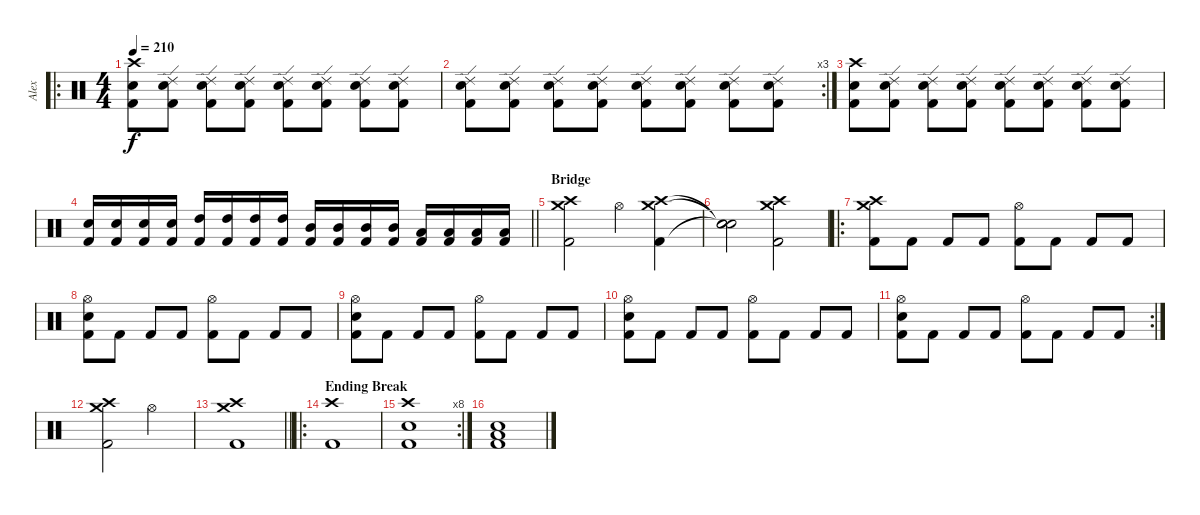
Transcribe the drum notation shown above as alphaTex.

\track ("Alex" "Alex") {instrument percussion}
\staff {score}
\articulation defaults
\ro
\ts (4 4)
\tempo 210
\clef neutral
\ks c
("Crash high (hit)" "Electric Snare (hit)" "Kick (hit) 2").8{dy f} ("Ride (edge) 2" "Electric Snare (hit)" "Kick (hit) 2").8 ("Ride (edge) 2" "Electric Snare (hit)" "Kick (hit) 2").8 ("Ride (edge) 2" "Electric Snare (hit)" "Kick (hit) 2").8 ("Ride (edge) 2" "Electric Snare (hit)" "Kick (hit) 2").8 ("Ride (edge) 2" "Electric Snare (hit)" "Kick (hit) 2").8 ("Ride (edge) 2" "Electric Snare (hit)" "Kick (hit) 2").8 ("Ride (edge) 2" "Electric Snare (hit)" "Kick (hit) 2").8 |
\rc 3
("Ride (edge) 2" "Electric Snare (hit)" "Kick (hit) 2").8 ("Ride (edge) 2" "Electric Snare (hit)" "Kick (hit) 2").8 ("Ride (edge) 2" "Electric Snare (hit)" "Kick (hit) 2").8 ("Ride (edge) 2" "Electric Snare (hit)" "Kick (hit) 2").8 ("Ride (edge) 2" "Electric Snare (hit)" "Kick (hit) 2").8 ("Ride (edge) 2" "Electric Snare (hit)" "Kick (hit) 2").8 ("Ride (edge) 2" "Electric Snare (hit)" "Kick (hit) 2").8 ("Ride (edge) 2" "Electric Snare (hit)" "Kick (hit) 2").8 |
("Crash high (hit)" "Electric Snare (hit)" "Kick (hit) 2").8 ("Ride (edge) 2" "Electric Snare (hit)" "Kick (hit) 2").8 ("Ride (edge) 2" "Electric Snare (hit)" "Kick (hit) 2").8 ("Ride (edge) 2" "Electric Snare (hit)" "Kick (hit) 2").8 ("Ride (edge) 2" "Electric Snare (hit)" "Kick (hit) 2").8 ("Ride (edge) 2" "Electric Snare (hit)" "Kick (hit) 2").8 ("Ride (edge) 2" "Electric Snare (hit)" "Kick (hit) 2").8 ("Ride (edge) 2" "Electric Snare (hit)" "Kick (hit) 2").8 |
\barLineRight lightlight
("Electric Snare (hit)" "Kick (hit) 2").16 ("Electric Snare (hit)" "Kick (hit) 2").16 ("Electric Snare (hit)" "Kick (hit) 2").16 ("Electric Snare (hit)" "Kick (hit) 2").16 ("High Tom (hit)" "Kick (hit) 2").16 ("High Tom (hit)" "Kick (hit) 2").16 ("High Tom (hit)" "Kick (hit) 2").16 ("High Tom (hit)" "Kick (hit) 2").16 ("Mid Tom (hit)" "Kick (hit) 2").16 ("Mid Tom (hit)" "Kick (hit) 2").16 ("Mid Tom (hit)" "Kick (hit) 2").16 ("Mid Tom (hit)" "Kick (hit) 2").16 ("Low Tom (hit)" "Kick (hit) 2").16 ("Low Tom (hit)" "Kick (hit) 2").16 ("Low Tom (hit)" "Kick (hit) 2").16 ("Low Tom (hit)" "Kick (hit) 2").16 |
\section ("" "Bridge")
("Crash high (hit)" "Crash medium (hit)" "Kick (hit) 2").2 "Hi-Hat (open)".4 ("Crash high (hit)" "Crash medium (hit)" "Kick (hit) 2").4 |
("Snare (hit)"{t} "Snare (hit)"{t} "Snare (hit)"{t}).2 ("Crash high (hit)" "Crash medium (hit)" "Kick (hit) 2").2 |
\ro
("Crash high (hit)" "Crash medium (hit)" "Kick (hit) 2").8 "Kick (hit) 2".8 "Kick (hit) 2".8 "Kick (hit) 2".8 ("Hi-Hat (open)" "Kick (hit) 2").8 "Kick (hit) 2".8 "Kick (hit) 2".8 "Kick (hit) 2".8 |
("Hi-Hat (open)" "Electric Snare (hit)" "Kick (hit) 2").8 "Kick (hit) 2".8 "Kick (hit) 2".8 "Kick (hit) 2".8 ("Hi-Hat (open)" "Kick (hit) 2").8 "Kick (hit) 2".8 "Kick (hit) 2".8 "Kick (hit) 2".8 |
("Hi-Hat (open)" "Electric Snare (hit)" "Kick (hit) 2").8 "Kick (hit) 2".8 "Kick (hit) 2".8 "Kick (hit) 2".8 ("Hi-Hat (open)" "Kick (hit) 2").8 "Kick (hit) 2".8 "Kick (hit) 2".8 "Kick (hit) 2".8 |
("Hi-Hat (open)" "Electric Snare (hit)" "Kick (hit) 2").8 "Kick (hit) 2".8 "Kick (hit) 2".8 "Kick (hit) 2".8 ("Hi-Hat (open)" "Kick (hit) 2").8 "Kick (hit) 2".8 "Kick (hit) 2".8 "Kick (hit) 2".8 |
\rc 2
("Hi-Hat (open)" "Electric Snare (hit)" "Kick (hit) 2").8 "Kick (hit) 2".8 "Kick (hit) 2".8 "Kick (hit) 2".8 ("Hi-Hat (open)" "Kick (hit) 2").8 "Kick (hit) 2".8 "Kick (hit) 2".8 "Kick (hit) 2".8 |
("Crash high (hit)" "Crash medium (hit)" "Kick (hit) 2").2 "Hi-Hat (open)".2 |
\barLineRight lightlight
("Crash high (hit)" "Crash medium (hit)" "Kick (hit) 2").1 |
\ro
\section ("" "Ending Break")
("Crash high (hit)" "Kick (hit) 2").1 |
\rc 8
("Crash high (hit)" "Electric Snare (hit)" "Kick (hit) 2").1 |
("Low Floor Tom (hit)" "Electric Snare (hit)" "Kick (hit) 2").1
